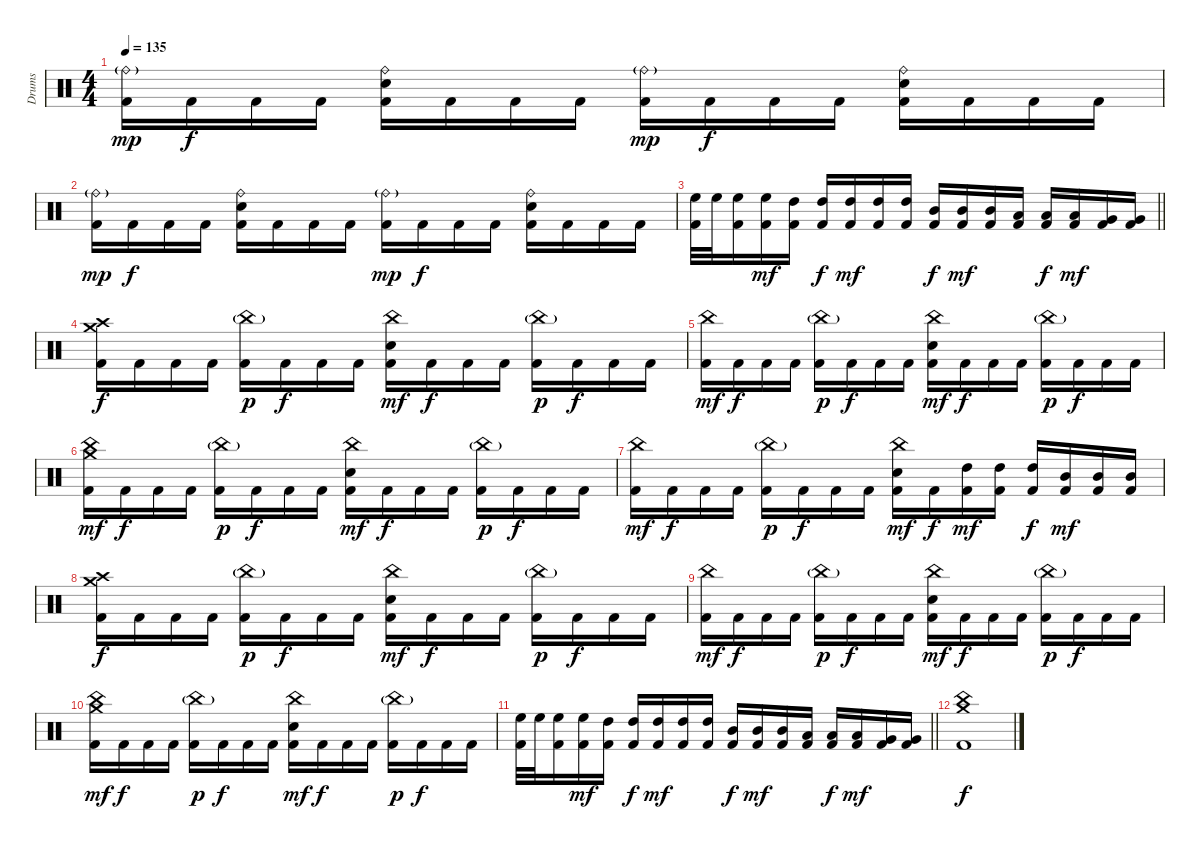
\track ("Drums" "Drums") {instrument percussion}
\staff {score}
\articulation defaults
\ts (4 4)
\tempo 135
\clef neutral
\ks c
("Ride (bell)"{g} "Kick (hit) 2").16{dy mp} "Kick (hit) 2".16{dy f} "Kick (hit) 2".16 "Kick (hit) 2".16 ("Ride (bell)" "Electric Snare (hit)" "Kick (hit) 2").16 "Kick (hit) 2".16 "Kick (hit) 2".16 "Kick (hit) 2".16 ("Ride (bell)"{g} "Kick (hit) 2").16{dy mp} "Kick (hit) 2".16{dy f} "Kick (hit) 2".16 "Kick (hit) 2".16 ("Ride (bell)" "Electric Snare (hit)" "Kick (hit) 2").16 "Kick (hit) 2".16 "Kick (hit) 2".16 "Kick (hit) 2".16 |
("Ride (bell)"{g} "Kick (hit) 2").16{dy mp} "Kick (hit) 2".16{dy f} "Kick (hit) 2".16 "Kick (hit) 2".16 ("Ride (bell)" "Electric Snare (hit)" "Kick (hit) 2").16 "Kick (hit) 2".16 "Kick (hit) 2".16 "Kick (hit) 2".16 ("Ride (bell)"{g} "Kick (hit) 2").16{dy mp} "Kick (hit) 2".16{dy f} "Kick (hit) 2".16 "Kick (hit) 2".16 ("Ride (bell)" "Electric Snare (hit)" "Kick (hit) 2").16 "Kick (hit) 2".16 "Kick (hit) 2".16 "Kick (hit) 2".16 |
\barLineRight lightlight
("High Floor Tom (hit)" "Kick (hit) 2").32 "High Floor Tom (hit)".32 ("High Floor Tom (hit)" "Kick (hit) 2").16 ("High Floor Tom (hit)" "Kick (hit) 2").16{dy mf} ("High Tom (hit)" "Kick (hit) 2").16 ("High Tom (hit)" "Kick (hit) 2").16{dy f} ("High Tom (hit)" "Kick (hit) 2").16{dy mf} ("High Tom (hit)" "Kick (hit) 2").16 ("High Tom (hit)" "Kick (hit) 2").16 ("Mid Tom (hit)" "Kick (hit) 2").16{dy f} ("Mid Tom (hit)" "Kick (hit) 2").16{dy mf} ("Mid Tom (hit)" "Kick (hit) 2").16 ("Low Tom (hit)" "Kick (hit) 2").16 ("Low Tom (hit)" "Kick (hit) 2").16{dy f} ("Low Tom (hit)" "Kick (hit) 2").16{dy mf} ("Very Low Tom (hit)" "Kick (hit) 2").16 ("Very Low Tom (hit)" "Kick (hit) 2").16 |
("Crash high (hit)" "Crash medium (hit)" "Kick (hit) 2").16{dy f} "Kick (hit) 2".16 "Kick (hit) 2".16 "Kick (hit) 2".16 ("China (hit)"{g} "Kick (hit) 2").16{dy p} "Kick (hit) 2".16{dy f} "Kick (hit) 2".16 "Kick (hit) 2".16 ("China (hit)" "Electric Snare (hit)" "Kick (hit) 2").16{dy mf} "Kick (hit) 2".16{dy f} "Kick (hit) 2".16 "Kick (hit) 2".16 ("China (hit)"{g} "Kick (hit) 2").16{dy p} "Kick (hit) 2".16{dy f} "Kick (hit) 2".16 "Kick (hit) 2".16 |
("China (hit)" "Kick (hit) 2").16{dy mf} "Kick (hit) 2".16{dy f} "Kick (hit) 2".16 "Kick (hit) 2".16 ("China (hit)"{g} "Kick (hit) 2").16{dy p} "Kick (hit) 2".16{dy f} "Kick (hit) 2".16 "Kick (hit) 2".16 ("China (hit)" "Electric Snare (hit)" "Kick (hit) 2").16{dy mf} "Kick (hit) 2".16{dy f} "Kick (hit) 2".16 "Kick (hit) 2".16 ("China (hit)"{g} "Kick (hit) 2").16{dy p} "Kick (hit) 2".16{dy f} "Kick (hit) 2".16 "Kick (hit) 2".16 |
("Crash medium (hit)" "China (hit)" "Kick (hit) 2").16{dy mf} "Kick (hit) 2".16{dy f} "Kick (hit) 2".16 "Kick (hit) 2".16 ("China (hit)"{g} "Kick (hit) 2").16{dy p} "Kick (hit) 2".16{dy f} "Kick (hit) 2".16 "Kick (hit) 2".16 ("China (hit)" "Electric Snare (hit)" "Kick (hit) 2").16{dy mf} "Kick (hit) 2".16{dy f} "Kick (hit) 2".16 "Kick (hit) 2".16 ("China (hit)"{g} "Kick (hit) 2").16{dy p} "Kick (hit) 2".16{dy f} "Kick (hit) 2".16 "Kick (hit) 2".16 |
("China (hit)" "Kick (hit) 2").16{dy mf} "Kick (hit) 2".16{dy f} "Kick (hit) 2".16 "Kick (hit) 2".16 ("China (hit)"{g} "Kick (hit) 2").16{dy p} "Kick (hit) 2".16{dy f} "Kick (hit) 2".16 "Kick (hit) 2".16 ("China (hit)" "Electric Snare (hit)" "Kick (hit) 2").16{dy mf} "Kick (hit) 2".16{dy f} ("High Tom (hit)" "Kick (hit) 2").16{dy mf} ("High Tom (hit)" "Kick (hit) 2").16 ("High Tom (hit)" "Kick (hit) 2").16{dy f} ("Mid Tom (hit)" "Kick (hit) 2").16{dy mf} ("Mid Tom (hit)" "Kick (hit) 2").16 ("Mid Tom (hit)" "Kick (hit) 2").16 |
("Crash high (hit)" "Crash medium (hit)" "Kick (hit) 2").16{dy f} "Kick (hit) 2".16 "Kick (hit) 2".16 "Kick (hit) 2".16 ("China (hit)"{g} "Kick (hit) 2").16{dy p} "Kick (hit) 2".16{dy f} "Kick (hit) 2".16 "Kick (hit) 2".16 ("China (hit)" "Electric Snare (hit)" "Kick (hit) 2").16{dy mf} "Kick (hit) 2".16{dy f} "Kick (hit) 2".16 "Kick (hit) 2".16 ("China (hit)"{g} "Kick (hit) 2").16{dy p} "Kick (hit) 2".16{dy f} "Kick (hit) 2".16 "Kick (hit) 2".16 |
("China (hit)" "Kick (hit) 2").16{dy mf} "Kick (hit) 2".16{dy f} "Kick (hit) 2".16 "Kick (hit) 2".16 ("China (hit)"{g} "Kick (hit) 2").16{dy p} "Kick (hit) 2".16{dy f} "Kick (hit) 2".16 "Kick (hit) 2".16 ("China (hit)" "Electric Snare (hit)" "Kick (hit) 2").16{dy mf} "Kick (hit) 2".16{dy f} "Kick (hit) 2".16 "Kick (hit) 2".16 ("China (hit)"{g} "Kick (hit) 2").16{dy p} "Kick (hit) 2".16{dy f} "Kick (hit) 2".16 "Kick (hit) 2".16 |
("Crash medium (hit)" "China (hit)" "Kick (hit) 2").16{dy mf} "Kick (hit) 2".16{dy f} "Kick (hit) 2".16 "Kick (hit) 2".16 ("China (hit)"{g} "Kick (hit) 2").16{dy p} "Kick (hit) 2".16{dy f} "Kick (hit) 2".16 "Kick (hit) 2".16 ("China (hit)" "Electric Snare (hit)" "Kick (hit) 2").16{dy mf} "Kick (hit) 2".16{dy f} "Kick (hit) 2".16 "Kick (hit) 2".16 ("China (hit)"{g} "Kick (hit) 2").16{dy p} "Kick (hit) 2".16{dy f} "Kick (hit) 2".16 "Kick (hit) 2".16 |
\barLineRight lightlight
("High Floor Tom (hit)" "Kick (hit) 2").32 "High Floor Tom (hit)".32 ("High Floor Tom (hit)" "Kick (hit) 2").16 ("High Floor Tom (hit)" "Kick (hit) 2").16{dy mf} ("High Tom (hit)" "Kick (hit) 2").16 ("High Tom (hit)" "Kick (hit) 2").16{dy f} ("High Tom (hit)" "Kick (hit) 2").16{dy mf} ("High Tom (hit)" "Kick (hit) 2").16 ("High Tom (hit)" "Kick (hit) 2").16 ("Mid Tom (hit)" "Kick (hit) 2").16{dy f} ("Mid Tom (hit)" "Kick (hit) 2").16{dy mf} ("Mid Tom (hit)" "Kick (hit) 2").16 ("Low Tom (hit)" "Kick (hit) 2").16 ("Low Tom (hit)" "Kick (hit) 2").16{dy f} ("Low Tom (hit)" "Kick (hit) 2").16{dy mf} ("Very Low Tom (hit)" "Kick (hit) 2").16 ("Very Low Tom (hit)" "Kick (hit) 2").16 |
("Crash medium (hit)" "China (hit)" "Kick (hit) 2").1{dy f}
